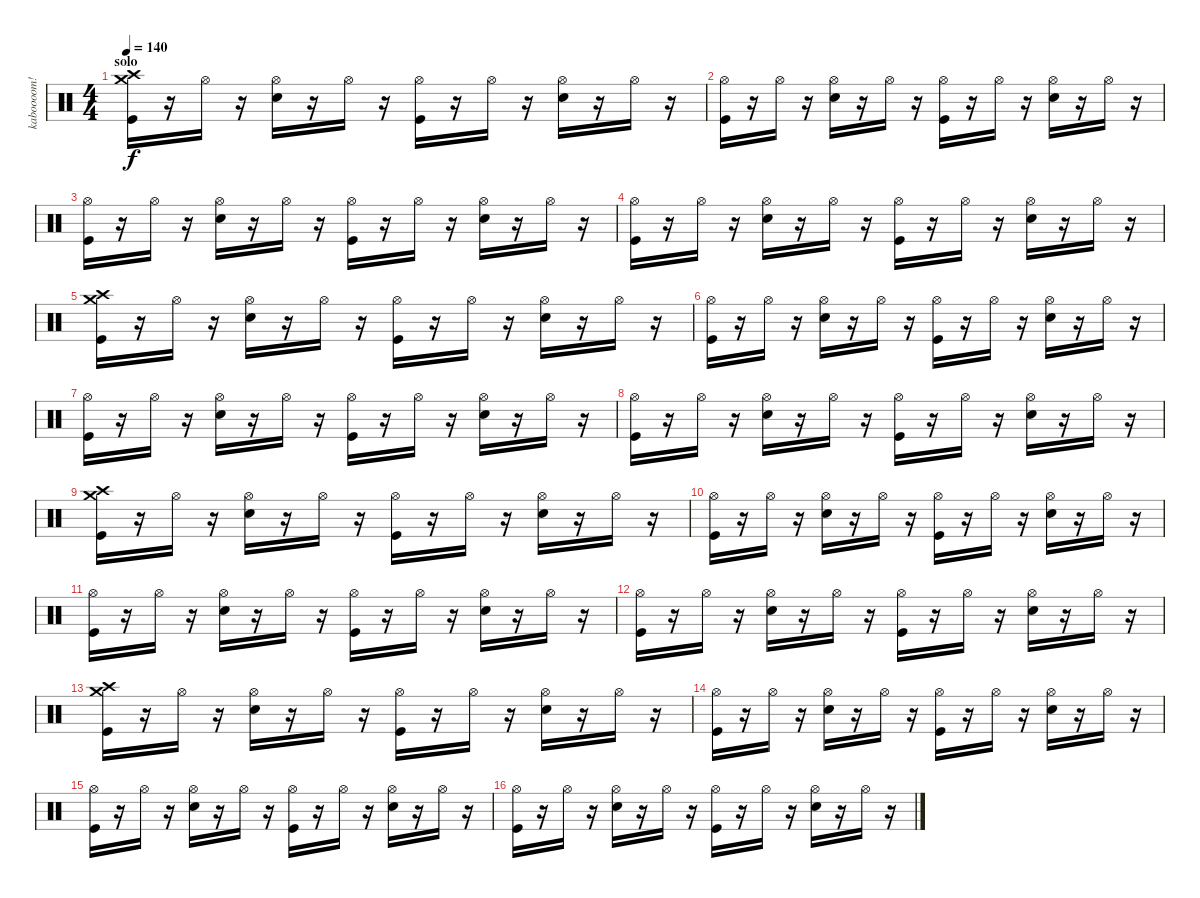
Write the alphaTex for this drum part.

\track ("kaboooom!" "kaboooom!") {instrument percussion}
\staff {score}
\articulation defaults
\ts (4 4)
\section ("" "solo")
\tempo 140
\clef neutral
\ks c
("Crash high (hit)" "Crash medium (hit)" "Kick (hit)").16{dy f} r.16 "Hi-Hat (open)".16 r.16 ("Hi-Hat (open)" "Electric Snare (hit)").16 r.16 "Hi-Hat (open)".16 r.16 ("Hi-Hat (open)" "Kick (hit)").16 r.16 "Hi-Hat (open)".16 r.16 ("Hi-Hat (open)" "Electric Snare (hit)").16 r.16 "Hi-Hat (open)".16 r.16 |
("Hi-Hat (open)" "Kick (hit)").16 r.16 "Hi-Hat (open)".16 r.16 ("Hi-Hat (open)" "Electric Snare (hit)").16 r.16 "Hi-Hat (open)".16 r.16 ("Hi-Hat (open)" "Kick (hit)").16 r.16 "Hi-Hat (open)".16 r.16 ("Hi-Hat (open)" "Electric Snare (hit)").16 r.16 "Hi-Hat (open)".16 r.16 |
("Hi-Hat (open)" "Kick (hit)").16 r.16 "Hi-Hat (open)".16 r.16 ("Hi-Hat (open)" "Electric Snare (hit)").16 r.16 "Hi-Hat (open)".16 r.16 ("Hi-Hat (open)" "Kick (hit)").16 r.16 "Hi-Hat (open)".16 r.16 ("Hi-Hat (open)" "Electric Snare (hit)").16 r.16 "Hi-Hat (open)".16 r.16 |
("Hi-Hat (open)" "Kick (hit)").16 r.16 "Hi-Hat (open)".16 r.16 ("Hi-Hat (open)" "Electric Snare (hit)").16 r.16 "Hi-Hat (open)".16 r.16 ("Hi-Hat (open)" "Kick (hit)").16 r.16 "Hi-Hat (open)".16 r.16 ("Hi-Hat (open)" "Electric Snare (hit)").16 r.16 "Hi-Hat (open)".16 r.16 |
("Crash high (hit)" "Crash medium (hit)" "Kick (hit)").16 r.16 "Hi-Hat (open)".16 r.16 ("Hi-Hat (open)" "Electric Snare (hit)").16 r.16 "Hi-Hat (open)".16 r.16 ("Hi-Hat (open)" "Kick (hit)").16 r.16 "Hi-Hat (open)".16 r.16 ("Hi-Hat (open)" "Electric Snare (hit)").16 r.16 "Hi-Hat (open)".16 r.16 |
("Hi-Hat (open)" "Kick (hit)").16 r.16 "Hi-Hat (open)".16 r.16 ("Hi-Hat (open)" "Electric Snare (hit)").16 r.16 "Hi-Hat (open)".16 r.16 ("Hi-Hat (open)" "Kick (hit)").16 r.16 "Hi-Hat (open)".16 r.16 ("Hi-Hat (open)" "Electric Snare (hit)").16 r.16 "Hi-Hat (open)".16 r.16 |
("Hi-Hat (open)" "Kick (hit)").16 r.16 "Hi-Hat (open)".16 r.16 ("Hi-Hat (open)" "Electric Snare (hit)").16 r.16 "Hi-Hat (open)".16 r.16 ("Hi-Hat (open)" "Kick (hit)").16 r.16 "Hi-Hat (open)".16 r.16 ("Hi-Hat (open)" "Electric Snare (hit)").16 r.16 "Hi-Hat (open)".16 r.16 |
("Hi-Hat (open)" "Kick (hit)").16 r.16 "Hi-Hat (open)".16 r.16 ("Hi-Hat (open)" "Electric Snare (hit)").16 r.16 "Hi-Hat (open)".16 r.16 ("Hi-Hat (open)" "Kick (hit)").16 r.16 "Hi-Hat (open)".16 r.16 ("Hi-Hat (open)" "Electric Snare (hit)").16 r.16 "Hi-Hat (open)".16 r.16 |
("Crash high (hit)" "Crash medium (hit)" "Kick (hit)").16 r.16 "Hi-Hat (open)".16 r.16 ("Hi-Hat (open)" "Electric Snare (hit)").16 r.16 "Hi-Hat (open)".16 r.16 ("Hi-Hat (open)" "Kick (hit)").16 r.16 "Hi-Hat (open)".16 r.16 ("Hi-Hat (open)" "Electric Snare (hit)").16 r.16 "Hi-Hat (open)".16 r.16 |
("Hi-Hat (open)" "Kick (hit)").16 r.16 "Hi-Hat (open)".16 r.16 ("Hi-Hat (open)" "Electric Snare (hit)").16 r.16 "Hi-Hat (open)".16 r.16 ("Hi-Hat (open)" "Kick (hit)").16 r.16 "Hi-Hat (open)".16 r.16 ("Hi-Hat (open)" "Electric Snare (hit)").16 r.16 "Hi-Hat (open)".16 r.16 |
("Hi-Hat (open)" "Kick (hit)").16 r.16 "Hi-Hat (open)".16 r.16 ("Hi-Hat (open)" "Electric Snare (hit)").16 r.16 "Hi-Hat (open)".16 r.16 ("Hi-Hat (open)" "Kick (hit)").16 r.16 "Hi-Hat (open)".16 r.16 ("Hi-Hat (open)" "Electric Snare (hit)").16 r.16 "Hi-Hat (open)".16 r.16 |
("Hi-Hat (open)" "Kick (hit)").16 r.16 "Hi-Hat (open)".16 r.16 ("Hi-Hat (open)" "Electric Snare (hit)").16 r.16 "Hi-Hat (open)".16 r.16 ("Hi-Hat (open)" "Kick (hit)").16 r.16 "Hi-Hat (open)".16 r.16 ("Hi-Hat (open)" "Electric Snare (hit)").16 r.16 "Hi-Hat (open)".16 r.16 |
("Crash high (hit)" "Crash medium (hit)" "Kick (hit)").16 r.16 "Hi-Hat (open)".16 r.16 ("Hi-Hat (open)" "Electric Snare (hit)").16 r.16 "Hi-Hat (open)".16 r.16 ("Hi-Hat (open)" "Kick (hit)").16 r.16 "Hi-Hat (open)".16 r.16 ("Hi-Hat (open)" "Electric Snare (hit)").16 r.16 "Hi-Hat (open)".16 r.16 |
("Hi-Hat (open)" "Kick (hit)").16 r.16 "Hi-Hat (open)".16 r.16 ("Hi-Hat (open)" "Electric Snare (hit)").16 r.16 "Hi-Hat (open)".16 r.16 ("Hi-Hat (open)" "Kick (hit)").16 r.16 "Hi-Hat (open)".16 r.16 ("Hi-Hat (open)" "Electric Snare (hit)").16 r.16 "Hi-Hat (open)".16 r.16 |
("Hi-Hat (open)" "Kick (hit)").16 r.16 "Hi-Hat (open)".16 r.16 ("Hi-Hat (open)" "Electric Snare (hit)").16 r.16 "Hi-Hat (open)".16 r.16 ("Hi-Hat (open)" "Kick (hit)").16 r.16 "Hi-Hat (open)".16 r.16 ("Hi-Hat (open)" "Electric Snare (hit)").16 r.16 "Hi-Hat (open)".16 r.16 |
("Hi-Hat (open)" "Kick (hit)").16 r.16 "Hi-Hat (open)".16 r.16 ("Hi-Hat (open)" "Electric Snare (hit)").16 r.16 "Hi-Hat (open)".16 r.16 ("Hi-Hat (open)" "Kick (hit)").16 r.16 "Hi-Hat (open)".16 r.16 ("Hi-Hat (open)" "Electric Snare (hit)").16 r.16 "Hi-Hat (open)".16 r.16
